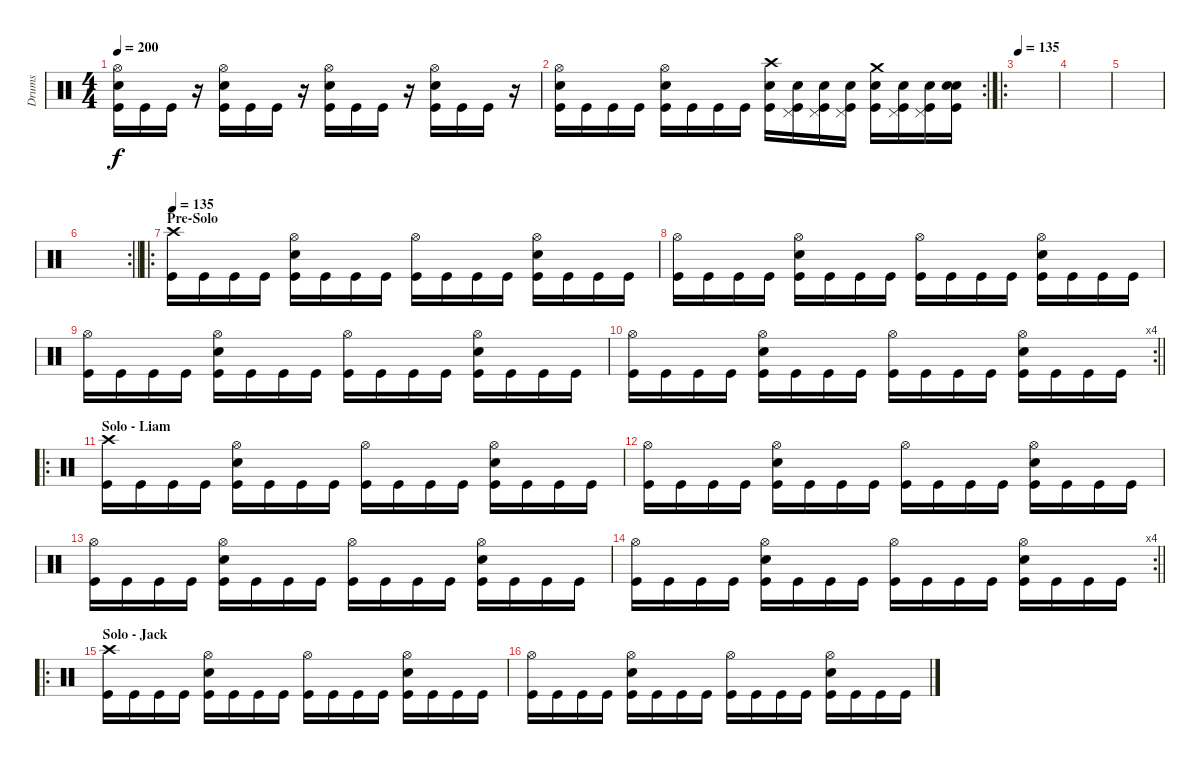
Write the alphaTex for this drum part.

\track ("Drums" "Drums") {instrument percussion}
\staff {score}
\articulation defaults
\ts (4 4)
\tempo 200
\clef neutral
\ks c
("Hi-Hat (open)" "Electric Snare (hit)" "Kick (hit)").16{dy f} "Kick (hit)".16 "Kick (hit)".16 r.16 ("Hi-Hat (open)" "Electric Snare (hit)" "Kick (hit)").16 "Kick (hit)".16 "Kick (hit)".16 r.16 ("Hi-Hat (open)" "Electric Snare (hit)" "Kick (hit)").16 "Kick (hit)".16 "Kick (hit)".16 r.16 ("Hi-Hat (open)" "Electric Snare (hit)" "Kick (hit)").16 "Kick (hit)".16 "Kick (hit)".16 r.16 |
\rc 2
("Hi-Hat (open)" "Electric Snare (hit)" "Kick (hit)").16 "Kick (hit)".16 "Kick (hit)".16 "Kick (hit)".16 ("Hi-Hat (open)" "Electric Snare (hit)" "Kick (hit)").16 "Kick (hit)".16 "Kick (hit)".16 "Kick (hit)".16 ("Crash high (hit)" "Electric Snare (hit)" "Kick (hit)").16 ("Pedal Hi-Hat (hit)" "Electric Snare (hit)" "Kick (hit)").16 ("Pedal Hi-Hat (hit)" "Electric Snare (hit)" "Kick (hit)").16 ("Pedal Hi-Hat (hit)" "Electric Snare (hit)" "Kick (hit)").16 ("Crash medium (hit)" "Electric Snare (hit)" "Kick (hit)").16 ("Pedal Hi-Hat (hit)" "Electric Snare (hit)" "Kick (hit)").16 ("Pedal Hi-Hat (hit)" "Electric Snare (hit)" "Kick (hit)").16 ("Snare (hit)" "Electric Snare (hit)" "Kick (hit)").16 |
\ro
\tempo 135
|
|
|
\rc 2
\barLineRight lightlight
|
\ro
\section ("" "Pre-Solo")
\tempo 135
("Crash high (hit)" "Kick (hit)").16 "Kick (hit)".16 "Kick (hit)".16 "Kick (hit)".16 ("Electric Snare (hit)" "Hi-Hat (open)" "Kick (hit)").16 "Kick (hit)".16 "Kick (hit)".16 "Kick (hit)".16 ("Hi-Hat (open)" "Kick (hit)").16 "Kick (hit)".16 "Kick (hit)".16 "Kick (hit)".16 ("Electric Snare (hit)" "Hi-Hat (open)" "Kick (hit)").16 "Kick (hit)".16 "Kick (hit)".16 "Kick (hit)".16 |
("Hi-Hat (open)" "Kick (hit)").16 "Kick (hit)".16 "Kick (hit)".16 "Kick (hit)".16 ("Electric Snare (hit)" "Hi-Hat (open)" "Kick (hit)").16 "Kick (hit)".16 "Kick (hit)".16 "Kick (hit)".16 ("Hi-Hat (open)" "Kick (hit)").16 "Kick (hit)".16 "Kick (hit)".16 "Kick (hit)".16 ("Electric Snare (hit)" "Hi-Hat (open)" "Kick (hit)").16 "Kick (hit)".16 "Kick (hit)".16 "Kick (hit)".16 |
("Hi-Hat (open)" "Kick (hit)").16 "Kick (hit)".16 "Kick (hit)".16 "Kick (hit)".16 ("Electric Snare (hit)" "Hi-Hat (open)" "Kick (hit)").16 "Kick (hit)".16 "Kick (hit)".16 "Kick (hit)".16 ("Hi-Hat (open)" "Kick (hit)").16 "Kick (hit)".16 "Kick (hit)".16 "Kick (hit)".16 ("Electric Snare (hit)" "Hi-Hat (open)" "Kick (hit)").16 "Kick (hit)".16 "Kick (hit)".16 "Kick (hit)".16 |
\rc 4
\barLineRight lightlight
("Hi-Hat (open)" "Kick (hit)").16 "Kick (hit)".16 "Kick (hit)".16 "Kick (hit)".16 ("Electric Snare (hit)" "Hi-Hat (open)" "Kick (hit)").16 "Kick (hit)".16 "Kick (hit)".16 "Kick (hit)".16 ("Hi-Hat (open)" "Kick (hit)").16 "Kick (hit)".16 "Kick (hit)".16 "Kick (hit)".16 ("Electric Snare (hit)" "Hi-Hat (open)" "Kick (hit)").16 "Kick (hit)".16 "Kick (hit)".16 "Kick (hit)".16 |
\ro
\section ("" "Solo - Liam")
("Crash high (hit)" "Kick (hit)").16 "Kick (hit)".16 "Kick (hit)".16 "Kick (hit)".16 ("Electric Snare (hit)" "Hi-Hat (open)" "Kick (hit)").16 "Kick (hit)".16 "Kick (hit)".16 "Kick (hit)".16 ("Hi-Hat (open)" "Kick (hit)").16 "Kick (hit)".16 "Kick (hit)".16 "Kick (hit)".16 ("Electric Snare (hit)" "Hi-Hat (open)" "Kick (hit)").16 "Kick (hit)".16 "Kick (hit)".16 "Kick (hit)".16 |
("Hi-Hat (open)" "Kick (hit)").16 "Kick (hit)".16 "Kick (hit)".16 "Kick (hit)".16 ("Electric Snare (hit)" "Hi-Hat (open)" "Kick (hit)").16 "Kick (hit)".16 "Kick (hit)".16 "Kick (hit)".16 ("Hi-Hat (open)" "Kick (hit)").16 "Kick (hit)".16 "Kick (hit)".16 "Kick (hit)".16 ("Electric Snare (hit)" "Hi-Hat (open)" "Kick (hit)").16 "Kick (hit)".16 "Kick (hit)".16 "Kick (hit)".16 |
("Hi-Hat (open)" "Kick (hit)").16 "Kick (hit)".16 "Kick (hit)".16 "Kick (hit)".16 ("Electric Snare (hit)" "Hi-Hat (open)" "Kick (hit)").16 "Kick (hit)".16 "Kick (hit)".16 "Kick (hit)".16 ("Hi-Hat (open)" "Kick (hit)").16 "Kick (hit)".16 "Kick (hit)".16 "Kick (hit)".16 ("Electric Snare (hit)" "Hi-Hat (open)" "Kick (hit)").16 "Kick (hit)".16 "Kick (hit)".16 "Kick (hit)".16 |
\rc 4
\barLineRight lightlight
("Hi-Hat (open)" "Kick (hit)").16 "Kick (hit)".16 "Kick (hit)".16 "Kick (hit)".16 ("Electric Snare (hit)" "Hi-Hat (open)" "Kick (hit)").16 "Kick (hit)".16 "Kick (hit)".16 "Kick (hit)".16 ("Hi-Hat (open)" "Kick (hit)").16 "Kick (hit)".16 "Kick (hit)".16 "Kick (hit)".16 ("Electric Snare (hit)" "Hi-Hat (open)" "Kick (hit)").16 "Kick (hit)".16 "Kick (hit)".16 "Kick (hit)".16 |
\ro
\section ("" "Solo - Jack")
("Crash high (hit)" "Kick (hit)").16 "Kick (hit)".16 "Kick (hit)".16 "Kick (hit)".16 ("Electric Snare (hit)" "Hi-Hat (open)" "Kick (hit)").16 "Kick (hit)".16 "Kick (hit)".16 "Kick (hit)".16 ("Hi-Hat (open)" "Kick (hit)").16 "Kick (hit)".16 "Kick (hit)".16 "Kick (hit)".16 ("Electric Snare (hit)" "Hi-Hat (open)" "Kick (hit)").16 "Kick (hit)".16 "Kick (hit)".16 "Kick (hit)".16 |
("Hi-Hat (open)" "Kick (hit)").16 "Kick (hit)".16 "Kick (hit)".16 "Kick (hit)".16 ("Electric Snare (hit)" "Hi-Hat (open)" "Kick (hit)").16 "Kick (hit)".16 "Kick (hit)".16 "Kick (hit)".16 ("Hi-Hat (open)" "Kick (hit)").16 "Kick (hit)".16 "Kick (hit)".16 "Kick (hit)".16 ("Electric Snare (hit)" "Hi-Hat (open)" "Kick (hit)").16 "Kick (hit)".16 "Kick (hit)".16 "Kick (hit)".16
